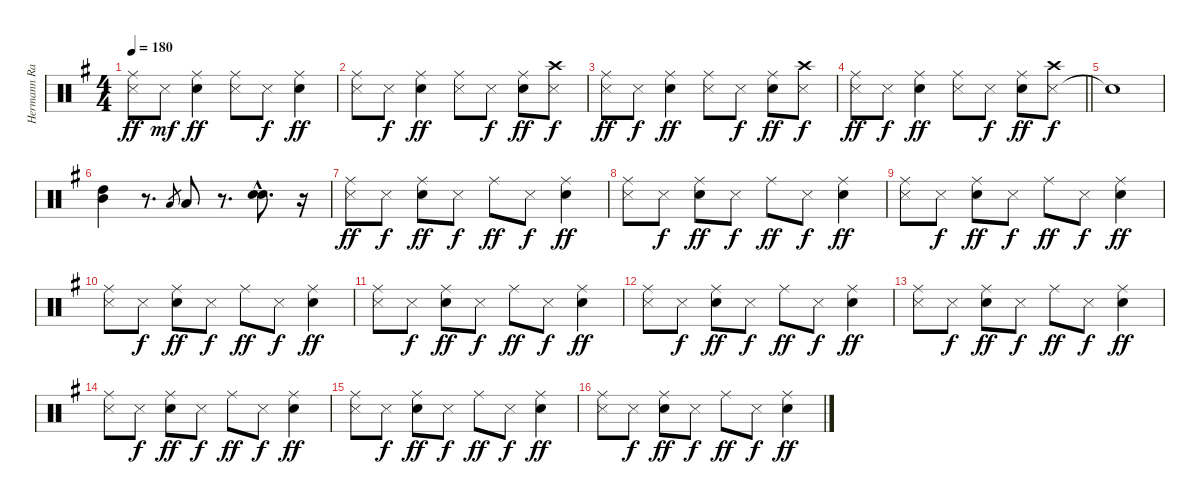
\track ("Hermann Rarebel" "Hermann Ra") {instrument percussion}
\staff {score}
\articulation defaults
\ts (4 4)
\tempo 180
\clef neutral
\ks eminor
("Metronome (hit)" "Ride (middle)").8{dy ff} "Metronome (hit)".8{dy mf} ("Snare (hit) 2" "Ride (middle)").4{dy ff} ("Metronome (hit)" "Ride (middle)").8 "Metronome (hit)".8{dy f} ("Snare (hit) 2" "Ride (middle)").4{dy ff} |
("Metronome (hit)" "Ride (middle)").8 "Metronome (hit)".8{dy f} ("Snare (hit) 2" "Ride (middle)").4{dy ff} ("Metronome (hit)" "Ride (middle)").8 "Metronome (hit)".8{dy f} ("Snare (hit) 2" "Ride (middle)").8{dy ff} ("Metronome (hit)" "Crash high (hit)").8{dy f} |
("Metronome (hit)" "Ride (middle)").8{dy ff} "Metronome (hit)".8{dy f} ("Snare (hit) 2" "Ride (middle)").4{dy ff} ("Metronome (hit)" "Ride (middle)").8 "Metronome (hit)".8{dy f} ("Snare (hit) 2" "Ride (middle)").8{dy ff} ("Metronome (hit)" "Crash high (hit)").8{dy f} |
\barLineRight lightlight
("Metronome (hit)" "Ride (middle)").8{dy ff} "Metronome (hit)".8{dy f} ("Snare (hit) 2" "Ride (middle)").4{dy ff} ("Metronome (hit)" "Ride (middle)").8 "Metronome (hit)".8{dy f} ("Snare (hit) 2" "Ride (middle)").8{dy ff} ("Metronome (hit)" "Crash high (hit)").8{dy f} |
"Snare (hit)"{t}.1 |
("High Tom (hit)" "Mid Tom (hit)").4 r.8{d} "Low Tom (hit)".8{gr} "Low Tom (hit)".8 r.8{d} ("Snare (hit) 2"{hac} "Electric Snare (hit)"{hac}).8{d} r.16 |
("Metronome (hit)" "Ride (middle)").8{dy ff} "Metronome (hit)".8{dy f} ("Snare (hit) 2" "Ride (middle)").8{dy ff} "Metronome (hit)".8{dy f} "Ride (middle)".8{dy ff} "Metronome (hit)".8{dy f} ("Snare (hit) 2" "Ride (middle)").4{dy ff} |
("Metronome (hit)" "Ride (middle)").8 "Metronome (hit)".8{dy f} ("Snare (hit) 2" "Ride (middle)").8{dy ff} "Metronome (hit)".8{dy f} "Ride (middle)".8{dy ff} "Metronome (hit)".8{dy f} ("Snare (hit) 2" "Ride (middle)").4{dy ff} |
("Metronome (hit)" "Ride (middle)").8 "Metronome (hit)".8{dy f} ("Snare (hit) 2" "Ride (middle)").8{dy ff} "Metronome (hit)".8{dy f} "Ride (middle)".8{dy ff} "Metronome (hit)".8{dy f} ("Snare (hit) 2" "Ride (middle)").4{dy ff} |
("Metronome (hit)" "Ride (middle)").8 "Metronome (hit)".8{dy f} ("Snare (hit) 2" "Ride (middle)").8{dy ff} "Metronome (hit)".8{dy f} "Ride (middle)".8{dy ff} "Metronome (hit)".8{dy f} ("Snare (hit) 2" "Ride (middle)").4{dy ff} |
("Metronome (hit)" "Ride (middle)").8 "Metronome (hit)".8{dy f} ("Snare (hit) 2" "Ride (middle)").8{dy ff} "Metronome (hit)".8{dy f} "Ride (middle)".8{dy ff} "Metronome (hit)".8{dy f} ("Snare (hit) 2" "Ride (middle)").4{dy ff} |
("Metronome (hit)" "Ride (middle)").8 "Metronome (hit)".8{dy f} ("Snare (hit) 2" "Ride (middle)").8{dy ff} "Metronome (hit)".8{dy f} "Ride (middle)".8{dy ff} "Metronome (hit)".8{dy f} ("Snare (hit) 2" "Ride (middle)").4{dy ff} |
("Metronome (hit)" "Ride (middle)").8 "Metronome (hit)".8{dy f} ("Snare (hit) 2" "Ride (middle)").8{dy ff} "Metronome (hit)".8{dy f} "Ride (middle)".8{dy ff} "Metronome (hit)".8{dy f} ("Snare (hit) 2" "Ride (middle)").4{dy ff} |
("Metronome (hit)" "Ride (middle)").8 "Metronome (hit)".8{dy f} ("Snare (hit) 2" "Ride (middle)").8{dy ff} "Metronome (hit)".8{dy f} "Ride (middle)".8{dy ff} "Metronome (hit)".8{dy f} ("Snare (hit) 2" "Ride (middle)").4{dy ff} |
("Metronome (hit)" "Ride (middle)").8 "Metronome (hit)".8{dy f} ("Snare (hit) 2" "Ride (middle)").8{dy ff} "Metronome (hit)".8{dy f} "Ride (middle)".8{dy ff} "Metronome (hit)".8{dy f} ("Snare (hit) 2" "Ride (middle)").4{dy ff} |
("Metronome (hit)" "Ride (middle)").8 "Metronome (hit)".8{dy f} ("Snare (hit) 2" "Ride (middle)").8{dy ff} "Metronome (hit)".8{dy f} "Ride (middle)".8{dy ff} "Metronome (hit)".8{dy f} ("Snare (hit) 2" "Ride (middle)").4{dy ff}
